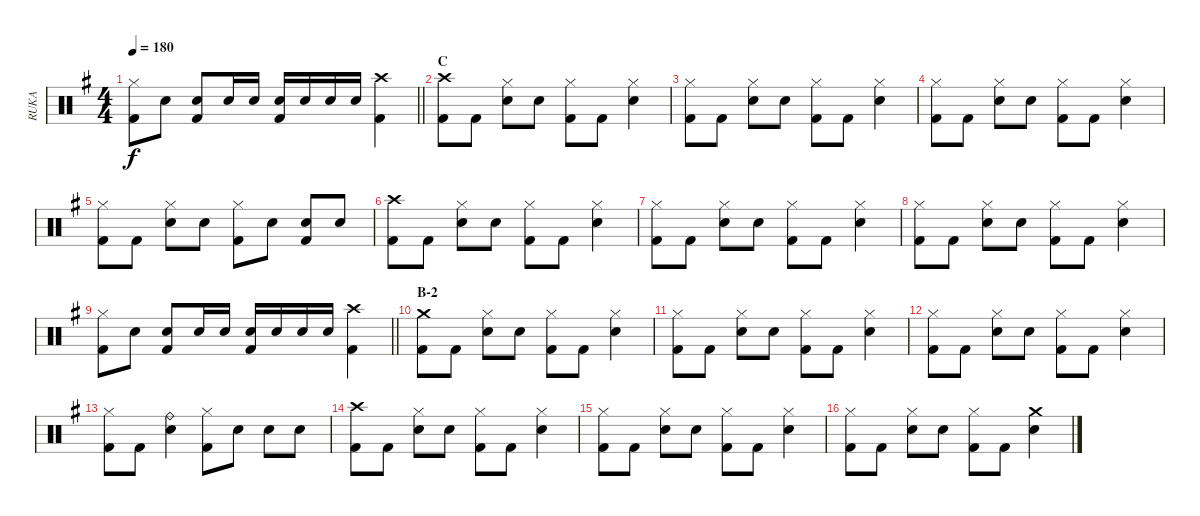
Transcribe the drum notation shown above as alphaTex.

\track ("RUKA" "RUKA") {instrument percussion}
\staff {score}
\articulation defaults
\ts (4 4)
\tempo 180
\clef neutral
\barLineRight lightlight
\ks g
("Hi-Hat (closed)" "Kick (hit) 2").8{dy f} "Snare (hit) 2".8 ("Snare (hit) 2" "Kick (hit) 2").8 "Snare (hit) 2".16 "Snare (hit) 2".16 ("Snare (hit) 2" "Kick (hit) 2").16 "Snare (hit) 2".16 "Snare (hit) 2".16 "Snare (hit) 2".16 ("Crash high (hit)" "Kick (hit) 2").4 |
\section ("" "C")
("Crash high (hit)" "Kick (hit) 2").8 "Kick (hit) 2".8 ("Hi-Hat (closed)" "Snare (hit) 2").8 "Snare (hit) 2".8 ("Hi-Hat (closed)" "Kick (hit) 2").8 "Kick (hit) 2".8 ("Hi-Hat (closed)" "Snare (hit) 2").4 |
("Hi-Hat (closed)" "Kick (hit) 2").8 "Kick (hit) 2".8 ("Hi-Hat (closed)" "Snare (hit) 2").8 "Snare (hit) 2".8 ("Hi-Hat (closed)" "Kick (hit) 2").8 "Kick (hit) 2".8 ("Hi-Hat (closed)" "Snare (hit) 2").4 |
("Hi-Hat (closed)" "Kick (hit) 2").8 "Kick (hit) 2".8 ("Hi-Hat (closed)" "Snare (hit) 2").8 "Snare (hit) 2".8 ("Hi-Hat (closed)" "Kick (hit) 2").8 "Kick (hit) 2".8 ("Hi-Hat (closed)" "Snare (hit) 2").4 |
("Hi-Hat (closed)" "Kick (hit) 2").8 "Kick (hit) 2".8 ("Hi-Hat (closed)" "Snare (hit) 2").8 "Snare (hit) 2".8 ("Hi-Hat (closed)" "Kick (hit) 2").8 "Snare (hit) 2".8 ("Snare (hit) 2" "Kick (hit) 2").8 "Snare (hit) 2".8 |
("Crash high (hit)" "Kick (hit) 2").8 "Kick (hit) 2".8 ("Hi-Hat (closed)" "Snare (hit) 2").8 "Snare (hit) 2".8 ("Hi-Hat (closed)" "Kick (hit) 2").8 "Kick (hit) 2".8 ("Hi-Hat (closed)" "Snare (hit) 2").4 |
("Hi-Hat (closed)" "Kick (hit) 2").8 "Kick (hit) 2".8 ("Hi-Hat (closed)" "Snare (hit) 2").8 "Snare (hit) 2".8 ("Hi-Hat (closed)" "Kick (hit) 2").8 "Kick (hit) 2".8 ("Hi-Hat (closed)" "Snare (hit) 2").4 |
("Hi-Hat (closed)" "Kick (hit) 2").8 "Kick (hit) 2".8 ("Hi-Hat (closed)" "Snare (hit) 2").8 "Snare (hit) 2".8 ("Hi-Hat (closed)" "Kick (hit) 2").8 "Kick (hit) 2".8 ("Hi-Hat (closed)" "Snare (hit) 2").4 |
\barLineRight lightlight
("Hi-Hat (closed)" "Kick (hit) 2").8 "Snare (hit) 2".8 ("Snare (hit) 2" "Kick (hit) 2").8 "Snare (hit) 2".16 "Snare (hit) 2".16 ("Snare (hit) 2" "Kick (hit) 2").16 "Snare (hit) 2".16 "Snare (hit) 2".16 "Snare (hit) 2".16 ("Crash high (hit)" "Kick (hit) 2").4 |
\section ("" "B-2")
("Crash medium (hit)" "Kick (hit) 2").8 "Kick (hit) 2".8 ("Hi-Hat (closed)" "Snare (hit) 2").8 "Snare (hit) 2".8 ("Hi-Hat (closed)" "Kick (hit) 2").8 "Kick (hit) 2".8 ("Hi-Hat (closed)" "Snare (hit) 2").4 |
("Hi-Hat (closed)" "Kick (hit) 2").8 "Kick (hit) 2".8 ("Hi-Hat (closed)" "Snare (hit) 2").8 "Snare (hit) 2".8 ("Hi-Hat (closed)" "Kick (hit) 2").8 "Kick (hit) 2".8 ("Hi-Hat (closed)" "Snare (hit) 2").4 |
("Hi-Hat (closed)" "Kick (hit) 2").8 "Kick (hit) 2".8 ("Hi-Hat (closed)" "Snare (hit) 2").8 "Snare (hit) 2".8 ("Hi-Hat (closed)" "Kick (hit) 2").8 "Kick (hit) 2".8 ("Hi-Hat (closed)" "Snare (hit) 2").4 |
("Hi-Hat (closed)" "Kick (hit) 2").8 "Kick (hit) 2".8 ("Ride (bell)" "Snare (hit) 2").4 ("Hi-Hat (closed)" "Kick (hit) 2").8 "Snare (hit) 2".8 "Snare (hit) 2".8 "Snare (hit) 2".8 |
("Crash high (hit)" "Kick (hit) 2").8 "Kick (hit) 2".8 ("Hi-Hat (closed)" "Snare (hit) 2").8 "Snare (hit) 2".8 ("Hi-Hat (closed)" "Kick (hit) 2").8 "Kick (hit) 2".8 ("Hi-Hat (closed)" "Snare (hit) 2").4 |
("Hi-Hat (closed)" "Kick (hit) 2").8 "Kick (hit) 2".8 ("Hi-Hat (closed)" "Snare (hit) 2").8 "Snare (hit) 2".8 ("Hi-Hat (closed)" "Kick (hit) 2").8 "Kick (hit) 2".8 ("Hi-Hat (closed)" "Snare (hit) 2").4 |
("Hi-Hat (closed)" "Kick (hit) 2").8 "Kick (hit) 2".8 ("Hi-Hat (closed)" "Snare (hit) 2").8 "Snare (hit) 2".8 ("Hi-Hat (closed)" "Kick (hit) 2").8 "Kick (hit) 2".8 ("Crash medium (hit)" "Snare (hit) 2").4
